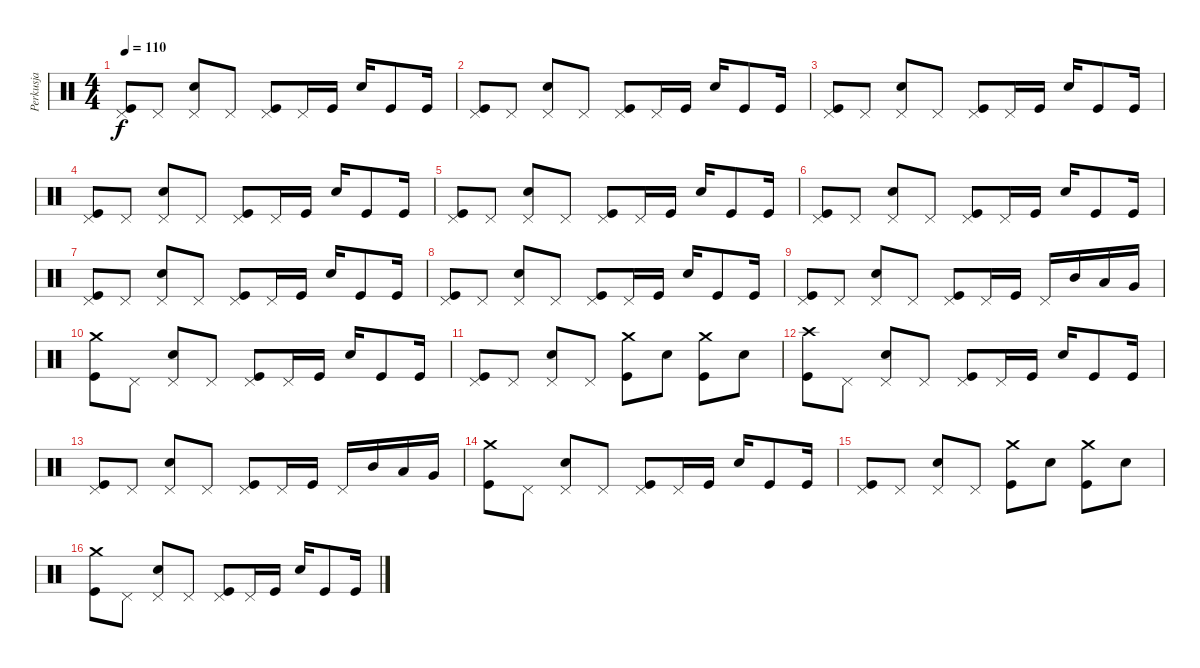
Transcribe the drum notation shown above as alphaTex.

\track ("Perkusja" "Perkusja") {instrument percussion}
\staff {score}
\articulation defaults
\ts (4 4)
\tempo 110
\clef neutral
\ks c
("Pedal Hi-Hat (hit)" "Kick (hit)").8{dy f} "Pedal Hi-Hat (hit)".8 ("Pedal Hi-Hat (hit)" "Snare (hit) 2").8 "Pedal Hi-Hat (hit)".8 ("Pedal Hi-Hat (hit)" "Kick (hit)").8 "Pedal Hi-Hat (hit)".16 "Kick (hit)".16 "Snare (hit) 2".16 "Kick (hit)".8 "Kick (hit)".16 |
("Pedal Hi-Hat (hit)" "Kick (hit)").8 "Pedal Hi-Hat (hit)".8 ("Pedal Hi-Hat (hit)" "Snare (hit) 2").8 "Pedal Hi-Hat (hit)".8 ("Pedal Hi-Hat (hit)" "Kick (hit)").8 "Pedal Hi-Hat (hit)".16 "Kick (hit)".16 "Snare (hit) 2".16 "Kick (hit)".8 "Kick (hit)".16 |
("Pedal Hi-Hat (hit)" "Kick (hit)").8 "Pedal Hi-Hat (hit)".8 ("Pedal Hi-Hat (hit)" "Snare (hit) 2").8 "Pedal Hi-Hat (hit)".8 ("Pedal Hi-Hat (hit)" "Kick (hit)").8 "Pedal Hi-Hat (hit)".16 "Kick (hit)".16 "Snare (hit) 2".16 "Kick (hit)".8 "Kick (hit)".16 |
("Pedal Hi-Hat (hit)" "Kick (hit)").8 "Pedal Hi-Hat (hit)".8 ("Pedal Hi-Hat (hit)" "Snare (hit) 2").8 "Pedal Hi-Hat (hit)".8 ("Pedal Hi-Hat (hit)" "Kick (hit)").8 "Pedal Hi-Hat (hit)".16 "Kick (hit)".16 "Snare (hit) 2".16 "Kick (hit)".8 "Kick (hit)".16 |
("Pedal Hi-Hat (hit)" "Kick (hit)").8 "Pedal Hi-Hat (hit)".8 ("Pedal Hi-Hat (hit)" "Snare (hit) 2").8 "Pedal Hi-Hat (hit)".8 ("Pedal Hi-Hat (hit)" "Kick (hit)").8 "Pedal Hi-Hat (hit)".16 "Kick (hit)".16 "Snare (hit) 2".16 "Kick (hit)".8 "Kick (hit)".16 |
("Pedal Hi-Hat (hit)" "Kick (hit)").8 "Pedal Hi-Hat (hit)".8 ("Pedal Hi-Hat (hit)" "Snare (hit) 2").8 "Pedal Hi-Hat (hit)".8 ("Pedal Hi-Hat (hit)" "Kick (hit)").8 "Pedal Hi-Hat (hit)".16 "Kick (hit)".16 "Snare (hit) 2".16 "Kick (hit)".8 "Kick (hit)".16 |
("Pedal Hi-Hat (hit)" "Kick (hit)").8 "Pedal Hi-Hat (hit)".8 ("Pedal Hi-Hat (hit)" "Snare (hit) 2").8 "Pedal Hi-Hat (hit)".8 ("Pedal Hi-Hat (hit)" "Kick (hit)").8 "Pedal Hi-Hat (hit)".16 "Kick (hit)".16 "Snare (hit) 2".16 "Kick (hit)".8 "Kick (hit)".16 |
("Pedal Hi-Hat (hit)" "Kick (hit)").8 "Pedal Hi-Hat (hit)".8 ("Pedal Hi-Hat (hit)" "Snare (hit) 2").8 "Pedal Hi-Hat (hit)".8 ("Pedal Hi-Hat (hit)" "Kick (hit)").8 "Pedal Hi-Hat (hit)".16 "Kick (hit)".16 "Snare (hit) 2".16 "Kick (hit)".8 "Kick (hit)".16 |
("Pedal Hi-Hat (hit)" "Kick (hit)").8 "Pedal Hi-Hat (hit)".8 ("Pedal Hi-Hat (hit)" "Snare (hit) 2").8 "Pedal Hi-Hat (hit)".8 ("Pedal Hi-Hat (hit)" "Kick (hit)").8 "Pedal Hi-Hat (hit)".16 "Kick (hit)".16 "Pedal Hi-Hat (hit)".16 "Mid Tom (hit)".16 "Low Tom (hit)".16 "Very Low Tom (hit)".16 |
("Crash medium (hit)" "Kick (hit)").8 "Pedal Hi-Hat (hit)".8 ("Pedal Hi-Hat (hit)" "Snare (hit) 2").8 "Pedal Hi-Hat (hit)".8 ("Pedal Hi-Hat (hit)" "Kick (hit)").8 "Pedal Hi-Hat (hit)".16 "Kick (hit)".16 "Snare (hit) 2".16 "Kick (hit)".8 "Kick (hit)".16 |
("Pedal Hi-Hat (hit)" "Kick (hit)").8 "Pedal Hi-Hat (hit)".8 ("Pedal Hi-Hat (hit)" "Snare (hit) 2").8 "Pedal Hi-Hat (hit)".8 ("Crash medium (hit)" "Kick (hit)").8 "Snare (hit) 2".8 ("Crash medium (hit)" "Kick (hit)").8 "Snare (hit) 2".8 |
("Crash high (hit)" "Kick (hit)").8 "Pedal Hi-Hat (hit)".8 ("Pedal Hi-Hat (hit)" "Snare (hit) 2").8 "Pedal Hi-Hat (hit)".8 ("Pedal Hi-Hat (hit)" "Kick (hit)").8 "Pedal Hi-Hat (hit)".16 "Kick (hit)".16 "Snare (hit) 2".16 "Kick (hit)".8 "Kick (hit)".16 |
("Pedal Hi-Hat (hit)" "Kick (hit)").8 "Pedal Hi-Hat (hit)".8 ("Pedal Hi-Hat (hit)" "Snare (hit) 2").8 "Pedal Hi-Hat (hit)".8 ("Pedal Hi-Hat (hit)" "Kick (hit)").8 "Pedal Hi-Hat (hit)".16 "Kick (hit)".16 "Pedal Hi-Hat (hit)".16 "Mid Tom (hit)".16 "Low Tom (hit)".16 "Very Low Tom (hit)".16 |
("Crash medium (hit)" "Kick (hit)").8 "Pedal Hi-Hat (hit)".8 ("Pedal Hi-Hat (hit)" "Snare (hit) 2").8 "Pedal Hi-Hat (hit)".8 ("Pedal Hi-Hat (hit)" "Kick (hit)").8 "Pedal Hi-Hat (hit)".16 "Kick (hit)".16 "Snare (hit) 2".16 "Kick (hit)".8 "Kick (hit)".16 |
("Pedal Hi-Hat (hit)" "Kick (hit)").8 "Pedal Hi-Hat (hit)".8 ("Pedal Hi-Hat (hit)" "Snare (hit) 2").8 "Pedal Hi-Hat (hit)".8 ("Crash medium (hit)" "Kick (hit)").8 "Snare (hit) 2".8 ("Crash medium (hit)" "Kick (hit)").8 "Snare (hit) 2".8 |
("Crash medium (hit)" "Kick (hit)").8 "Pedal Hi-Hat (hit)".8 ("Pedal Hi-Hat (hit)" "Snare (hit) 2").8 "Pedal Hi-Hat (hit)".8 ("Pedal Hi-Hat (hit)" "Kick (hit)").8 "Pedal Hi-Hat (hit)".16 "Kick (hit)".16 "Snare (hit) 2".16 "Kick (hit)".8 "Kick (hit)".16
